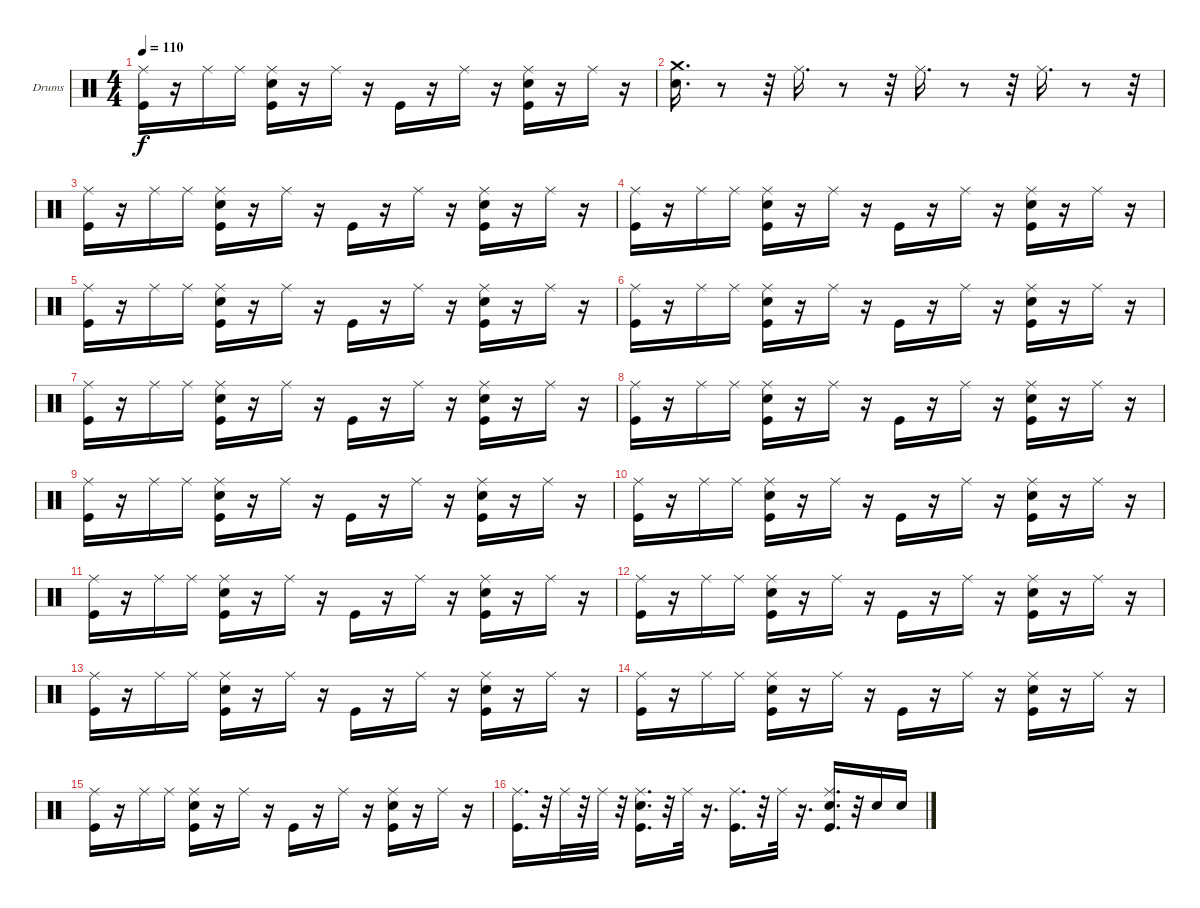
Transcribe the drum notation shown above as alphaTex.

\bracketExtendMode groupsimilarinstruments
\firstSystemTrackNameOrientation horizontal
\otherSystemsTrackNameOrientation horizontal
\track ("Drumkit" "Drums") {instrument percussion}
\staff {score}
\articulation defaults
\ts (4 4)
\tempo 110
\clef neutral
\ks c
("Kick (hit)" "Ride (middle)").16{dy f} r.16 "Ride (middle)".16 "Ride (middle)".16 ("Snare (hit) 2" "Ride (middle)" "Kick (hit)").16 r.16 "Ride (middle)".16 r.16 "Kick (hit)".16 r.16 "Ride (middle)".16 r.16 ("Snare (hit) 2" "Ride (middle)" "Kick (hit)").16 r.16 "Ride (middle)".16 r.16 |
("Crash medium (hit)" "Snare (hit) 2").16{d} r.8 r.32 "Ride (middle)".16{d} r.8 r.32 "Ride (middle)".16{d} r.8 r.32 "Ride (middle)".16{d} r.8 r.32 |
("Kick (hit)" "Ride (middle)").16 r.16 "Ride (middle)".16 "Ride (middle)".16 ("Snare (hit) 2" "Ride (middle)" "Kick (hit)").16 r.16 "Ride (middle)".16 r.16 "Kick (hit)".16 r.16 "Ride (middle)".16 r.16 ("Snare (hit) 2" "Ride (middle)" "Kick (hit)").16 r.16 "Ride (middle)".16 r.16 |
("Kick (hit)" "Ride (middle)").16 r.16 "Ride (middle)".16 "Ride (middle)".16 ("Snare (hit) 2" "Ride (middle)" "Kick (hit)").16 r.16 "Ride (middle)".16 r.16 "Kick (hit)".16 r.16 "Ride (middle)".16 r.16 ("Snare (hit) 2" "Ride (middle)" "Kick (hit)").16 r.16 "Ride (middle)".16 r.16 |
("Kick (hit)" "Ride (middle)").16 r.16 "Ride (middle)".16 "Ride (middle)".16 ("Snare (hit) 2" "Ride (middle)" "Kick (hit)").16 r.16 "Ride (middle)".16 r.16 "Kick (hit)".16 r.16 "Ride (middle)".16 r.16 ("Snare (hit) 2" "Ride (middle)" "Kick (hit)").16 r.16 "Ride (middle)".16 r.16 |
("Kick (hit)" "Ride (middle)").16 r.16 "Ride (middle)".16 "Ride (middle)".16 ("Snare (hit) 2" "Ride (middle)" "Kick (hit)").16 r.16 "Ride (middle)".16 r.16 "Kick (hit)".16 r.16 "Ride (middle)".16 r.16 ("Snare (hit) 2" "Ride (middle)" "Kick (hit)").16 r.16 "Ride (middle)".16 r.16 |
("Kick (hit)" "Ride (middle)").16 r.16 "Ride (middle)".16 "Ride (middle)".16 ("Snare (hit) 2" "Ride (middle)" "Kick (hit)").16 r.16 "Ride (middle)".16 r.16 "Kick (hit)".16 r.16 "Ride (middle)".16 r.16 ("Snare (hit) 2" "Ride (middle)" "Kick (hit)").16 r.16 "Ride (middle)".16 r.16 |
("Kick (hit)" "Ride (middle)").16 r.16 "Ride (middle)".16 "Ride (middle)".16 ("Snare (hit) 2" "Ride (middle)" "Kick (hit)").16 r.16 "Ride (middle)".16 r.16 "Kick (hit)".16 r.16 "Ride (middle)".16 r.16 ("Snare (hit) 2" "Ride (middle)" "Kick (hit)").16 r.16 "Ride (middle)".16 r.16 |
("Kick (hit)" "Ride (middle)").16 r.16 "Ride (middle)".16 "Ride (middle)".16 ("Snare (hit) 2" "Ride (middle)" "Kick (hit)").16 r.16 "Ride (middle)".16 r.16 "Kick (hit)".16 r.16 "Ride (middle)".16 r.16 ("Snare (hit) 2" "Ride (middle)" "Kick (hit)").16 r.16 "Ride (middle)".16 r.16 |
("Kick (hit)" "Ride (middle)").16 r.16 "Ride (middle)".16 "Ride (middle)".16 ("Snare (hit) 2" "Ride (middle)" "Kick (hit)").16 r.16 "Ride (middle)".16 r.16 "Kick (hit)".16 r.16 "Ride (middle)".16 r.16 ("Snare (hit) 2" "Ride (middle)" "Kick (hit)").16 r.16 "Ride (middle)".16 r.16 |
("Kick (hit)" "Ride (middle)").16 r.16 "Ride (middle)".16 "Ride (middle)".16 ("Snare (hit) 2" "Ride (middle)" "Kick (hit)").16 r.16 "Ride (middle)".16 r.16 "Kick (hit)".16 r.16 "Ride (middle)".16 r.16 ("Snare (hit) 2" "Ride (middle)" "Kick (hit)").16 r.16 "Ride (middle)".16 r.16 |
("Kick (hit)" "Ride (middle)").16 r.16 "Ride (middle)".16 "Ride (middle)".16 ("Snare (hit) 2" "Ride (middle)" "Kick (hit)").16 r.16 "Ride (middle)".16 r.16 "Kick (hit)".16 r.16 "Ride (middle)".16 r.16 ("Snare (hit) 2" "Ride (middle)" "Kick (hit)").16 r.16 "Ride (middle)".16 r.16 |
("Kick (hit)" "Ride (middle)").16 r.16 "Ride (middle)".16 "Ride (middle)".16 ("Snare (hit) 2" "Ride (middle)" "Kick (hit)").16 r.16 "Ride (middle)".16 r.16 "Kick (hit)".16 r.16 "Ride (middle)".16 r.16 ("Snare (hit) 2" "Ride (middle)" "Kick (hit)").16 r.16 "Ride (middle)".16 r.16 |
("Kick (hit)" "Ride (middle)").16 r.16 "Ride (middle)".16 "Ride (middle)".16 ("Snare (hit) 2" "Ride (middle)" "Kick (hit)").16 r.16 "Ride (middle)".16 r.16 "Kick (hit)".16 r.16 "Ride (middle)".16 r.16 ("Snare (hit) 2" "Ride (middle)" "Kick (hit)").16 r.16 "Ride (middle)".16 r.16 |
("Kick (hit)" "Ride (middle)").16 r.16 "Ride (middle)".16 "Ride (middle)".16 ("Snare (hit) 2" "Ride (middle)" "Kick (hit)").16 r.16 "Ride (middle)".16 r.16 "Kick (hit)".16 r.16 "Ride (middle)".16 r.16 ("Snare (hit) 2" "Ride (middle)" "Kick (hit)").16 r.16 "Ride (middle)".16 r.16 |
("Ride (middle)" "Kick (hit)").16{d} r.32 "Ride (middle)".32 r.32 "Ride (middle)".32 r.32 ("Snare (hit) 2" "Ride (middle)" "Kick (hit)").16{d} r.32 "Ride (middle)".32 r.16{d} ("Ride (middle)" "Kick (hit)").16{d} r.32 "Ride (middle)".32 r.16{d} ("Snare (hit) 2" "Ride (middle)" "Kick (hit)").16{d} r.32 "Snare (hit) 2".16 "Snare (hit) 2".16
